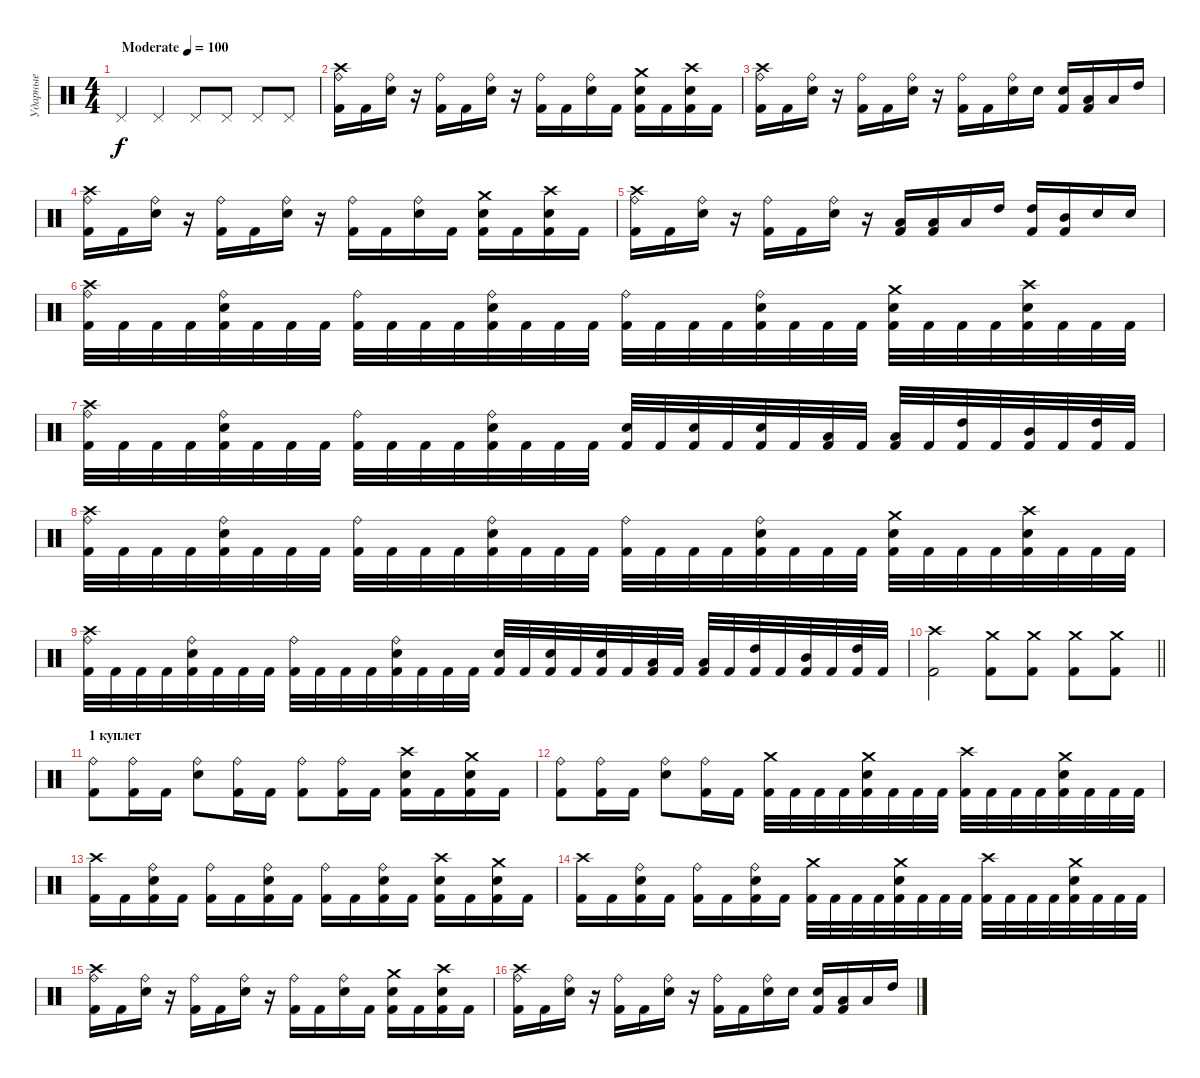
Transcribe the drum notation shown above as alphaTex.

\track ("Ударные" "Ударные") {instrument percussion}
\staff {score}
\articulation defaults
\ts (4 4)
\tempo (100 "Moderate")
\clef neutral
\ks c "Pedal Hi-Hat (hit)".4{dy f} "Pedal Hi-Hat (hit)".4 "Pedal Hi-Hat (hit)".8 "Pedal Hi-Hat (hit)".8 "Pedal Hi-Hat (hit)".8 "Pedal Hi-Hat (hit)".8
|
("Ride (bell)" "Crash high (hit)" "Kick (hit) 2").16 "Kick (hit) 2".16 ("Ride (bell)" "Snare (hit) 2").16 r.16 ("Ride (bell)" "Kick (hit) 2").16 "Kick (hit) 2".16 ("Ride (bell)" "Snare (hit) 2").16 r.16 ("Ride (bell)" "Kick (hit) 2").16 "Kick (hit) 2".16 ("Ride (bell)" "Snare (hit) 2").16 "Kick (hit) 2".16 ("Crash medium (hit)" "Snare (hit) 2" "Kick (hit) 2").16 "Kick (hit) 2".16 ("Crash high (hit)" "Snare (hit) 2" "Kick (hit) 2").16 "Kick (hit) 2".16 |
("Ride (bell)" "Crash high (hit)" "Kick (hit) 2").16 "Kick (hit) 2".16 ("Ride (bell)" "Snare (hit) 2").16 r.16 ("Ride (bell)" "Kick (hit) 2").16 "Kick (hit) 2".16 ("Ride (bell)" "Snare (hit) 2").16 r.16 ("Ride (bell)" "Kick (hit) 2").16 "Kick (hit) 2".16 ("Ride (bell)" "Snare (hit) 2").16 "Snare (hit) 2".16 ("Snare (hit) 2" "Kick (hit) 2").16 ("Low Tom (hit)" "Kick (hit) 2").16 "Low Tom (hit)".16 "High Tom (hit)".16 |
("Ride (bell)" "Crash high (hit)" "Kick (hit) 2").16 "Kick (hit) 2".16 ("Ride (bell)" "Snare (hit) 2").16 r.16 ("Ride (bell)" "Kick (hit) 2").16 "Kick (hit) 2".16 ("Ride (bell)" "Snare (hit) 2").16 r.16 ("Ride (bell)" "Kick (hit) 2").16 "Kick (hit) 2".16 ("Ride (bell)" "Snare (hit) 2").16 "Kick (hit) 2".16 ("Crash medium (hit)" "Snare (hit) 2" "Kick (hit) 2").16 "Kick (hit) 2".16 ("Crash high (hit)" "Snare (hit) 2" "Kick (hit) 2").16 "Kick (hit) 2".16 |
("Ride (bell)" "Crash high (hit)" "Kick (hit) 2").16 "Kick (hit) 2".16 ("Ride (bell)" "Snare (hit) 2").16 r.16 ("Ride (bell)" "Kick (hit) 2").16 "Kick (hit) 2".16 ("Ride (bell)" "Snare (hit) 2").16 r.16 ("Low Tom (hit)" "Kick (hit) 2").16 ("Low Tom (hit)" "Kick (hit) 2").16 "Low Tom (hit)".16 "High Tom (hit)".16 ("High Tom (hit)" "Kick (hit) 2").16 ("Mid Tom (hit)" "Kick (hit) 2").16 "Snare (hit) 2".16 "Snare (hit) 2".16 |
("Ride (bell)" "Crash high (hit)" "Kick (hit) 2").32 "Kick (hit) 2".32 "Kick (hit) 2".32 "Kick (hit) 2".32 ("Ride (bell)" "Snare (hit) 2" "Kick (hit) 2").32 "Kick (hit) 2".32 "Kick (hit) 2".32 "Kick (hit) 2".32 ("Ride (bell)" "Kick (hit) 2").32 "Kick (hit) 2".32 "Kick (hit) 2".32 "Kick (hit) 2".32 ("Ride (bell)" "Snare (hit) 2" "Kick (hit) 2").32 "Kick (hit) 2".32 "Kick (hit) 2".32 "Kick (hit) 2".32 ("Ride (bell)" "Kick (hit) 2").32 "Kick (hit) 2".32 "Kick (hit) 2".32 "Kick (hit) 2".32 ("Ride (bell)" "Snare (hit) 2" "Kick (hit) 2").32 "Kick (hit) 2".32 "Kick (hit) 2".32 "Kick (hit) 2".32 ("Crash medium (hit)" "Snare (hit) 2" "Kick (hit) 2").32 "Kick (hit) 2".32 "Kick (hit) 2".32 "Kick (hit) 2".32 ("Crash high (hit)" "Snare (hit) 2" "Kick (hit) 2").32 "Kick (hit) 2".32 "Kick (hit) 2".32 "Kick (hit) 2".32 |
("Ride (bell)" "Crash high (hit)" "Kick (hit) 2").32 "Kick (hit) 2".32 "Kick (hit) 2".32 "Kick (hit) 2".32 ("Ride (bell)" "Snare (hit) 2" "Kick (hit) 2").32 "Kick (hit) 2".32 "Kick (hit) 2".32 "Kick (hit) 2".32 ("Ride (bell)" "Kick (hit) 2").32 "Kick (hit) 2".32 "Kick (hit) 2".32 "Kick (hit) 2".32 ("Ride (bell)" "Snare (hit) 2" "Kick (hit) 2").32 "Kick (hit) 2".32 "Kick (hit) 2".32 "Kick (hit) 2".32 ("Snare (hit) 2" "Kick (hit) 2").32 "Kick (hit) 2".32 ("Snare (hit) 2" "Kick (hit) 2").32 "Kick (hit) 2".32 ("Snare (hit) 2" "Kick (hit) 2").32 "Kick (hit) 2".32 ("Low Tom (hit)" "Kick (hit) 2").32 "Kick (hit) 2".32 ("Low Tom (hit)" "Kick (hit) 2").32 "Kick (hit) 2".32 ("High Tom (hit)" "Kick (hit) 2").32 "Kick (hit) 2".32 ("Mid Tom (hit)" "Kick (hit) 2").32 "Kick (hit) 2".32 ("High Tom (hit)" "Kick (hit) 2").32 "Kick (hit) 2".32 |
("Ride (bell)" "Crash high (hit)" "Kick (hit) 2").32 "Kick (hit) 2".32 "Kick (hit) 2".32 "Kick (hit) 2".32 ("Ride (bell)" "Snare (hit) 2" "Kick (hit) 2").32 "Kick (hit) 2".32 "Kick (hit) 2".32 "Kick (hit) 2".32 ("Ride (bell)" "Kick (hit) 2").32 "Kick (hit) 2".32 "Kick (hit) 2".32 "Kick (hit) 2".32 ("Ride (bell)" "Snare (hit) 2" "Kick (hit) 2").32 "Kick (hit) 2".32 "Kick (hit) 2".32 "Kick (hit) 2".32 ("Ride (bell)" "Kick (hit) 2").32 "Kick (hit) 2".32 "Kick (hit) 2".32 "Kick (hit) 2".32 ("Ride (bell)" "Snare (hit) 2" "Kick (hit) 2").32 "Kick (hit) 2".32 "Kick (hit) 2".32 "Kick (hit) 2".32 ("Crash medium (hit)" "Snare (hit) 2" "Kick (hit) 2").32 "Kick (hit) 2".32 "Kick (hit) 2".32 "Kick (hit) 2".32 ("Crash high (hit)" "Snare (hit) 2" "Kick (hit) 2").32 "Kick (hit) 2".32 "Kick (hit) 2".32 "Kick (hit) 2".32 |
("Ride (bell)" "Crash high (hit)" "Kick (hit) 2").32 "Kick (hit) 2".32 "Kick (hit) 2".32 "Kick (hit) 2".32 ("Ride (bell)" "Snare (hit) 2" "Kick (hit) 2").32 "Kick (hit) 2".32 "Kick (hit) 2".32 "Kick (hit) 2".32 ("Ride (bell)" "Kick (hit) 2").32 "Kick (hit) 2".32 "Kick (hit) 2".32 "Kick (hit) 2".32 ("Ride (bell)" "Snare (hit) 2" "Kick (hit) 2").32 "Kick (hit) 2".32 "Kick (hit) 2".32 "Kick (hit) 2".32 ("Snare (hit) 2" "Kick (hit) 2").32 "Kick (hit) 2".32 ("Snare (hit) 2" "Kick (hit) 2").32 "Kick (hit) 2".32 ("Snare (hit) 2" "Kick (hit) 2").32 "Kick (hit) 2".32 ("Low Tom (hit)" "Kick (hit) 2").32 "Kick (hit) 2".32 ("Low Tom (hit)" "Kick (hit) 2").32 "Kick (hit) 2".32 ("High Tom (hit)" "Kick (hit) 2").32 "Kick (hit) 2".32 ("Mid Tom (hit)" "Kick (hit) 2").32 "Kick (hit) 2".32 ("High Tom (hit)" "Kick (hit) 2").32 "Kick (hit) 2".32 |
\barLineRight lightlight
("Crash high (hit)" "Kick (hit) 2").2 ("Crash medium (hit)" "Kick (hit) 2").8 ("Crash medium (hit)" "Kick (hit) 2").8 ("Crash medium (hit)" "Kick (hit) 2").8 ("Crash medium (hit)" "Kick (hit) 2").8 |
\section ("" "1 куплет")
("Ride (bell)" "Kick (hit) 2").8 ("Ride (bell)" "Kick (hit) 2").16 "Kick (hit) 2".16 ("Ride (bell)" "Snare (hit) 2").8 ("Ride (bell)" "Kick (hit) 2").16 "Kick (hit) 2".16 ("Ride (bell)" "Kick (hit) 2").8 ("Ride (bell)" "Kick (hit) 2").16 "Kick (hit) 2".16 ("Crash high (hit)" "Snare (hit) 2" "Kick (hit) 2").16 "Kick (hit) 2".16 ("Crash medium (hit)" "Snare (hit) 2" "Kick (hit) 2").16 "Kick (hit) 2".16 |
("Ride (bell)" "Kick (hit) 2").8 ("Ride (bell)" "Kick (hit) 2").16 "Kick (hit) 2".16 ("Ride (bell)" "Snare (hit) 2").8 ("Ride (bell)" "Kick (hit) 2").16 "Kick (hit) 2".16 ("Crash medium (hit)" "Kick (hit) 2").32 "Kick (hit) 2".32 "Kick (hit) 2".32 "Kick (hit) 2".32 ("Snare (hit) 2" "Crash medium (hit)" "Kick (hit) 2").32 "Kick (hit) 2".32 "Kick (hit) 2".32 "Kick (hit) 2".32 ("Crash high (hit)" "Kick (hit) 2").32 "Kick (hit) 2".32 "Kick (hit) 2".32 "Kick (hit) 2".32 ("Snare (hit) 2" "Crash medium (hit)" "Kick (hit) 2").32 "Kick (hit) 2".32 "Kick (hit) 2".32 "Kick (hit) 2".32 |
("Crash high (hit)" "Kick (hit) 2").16 "Kick (hit) 2".16 ("Ride (bell)" "Snare (hit) 2" "Kick (hit) 2").16 "Kick (hit) 2".16 ("Ride (bell)" "Kick (hit) 2").16 "Kick (hit) 2".16 ("Ride (bell)" "Snare (hit) 2" "Kick (hit) 2").16 "Kick (hit) 2".16 ("Ride (bell)" "Kick (hit) 2").16 "Kick (hit) 2".16 ("Ride (bell)" "Snare (hit) 2" "Kick (hit) 2").16 "Kick (hit) 2".16 ("Crash high (hit)" "Snare (hit) 2" "Kick (hit) 2").16 "Kick (hit) 2".16 ("Crash medium (hit)" "Snare (hit) 2" "Kick (hit) 2").16 "Kick (hit) 2".16 |
("Crash high (hit)" "Kick (hit) 2").16 "Kick (hit) 2".16 ("Ride (bell)" "Snare (hit) 2" "Kick (hit) 2").16 "Kick (hit) 2".16 ("Ride (bell)" "Kick (hit) 2").16 "Kick (hit) 2".16 ("Ride (bell)" "Snare (hit) 2" "Kick (hit) 2").16 "Kick (hit) 2".16 ("Crash medium (hit)" "Kick (hit) 2").32 "Kick (hit) 2".32 "Kick (hit) 2".32 "Kick (hit) 2".32 ("Snare (hit) 2" "Crash medium (hit)" "Kick (hit) 2").32 "Kick (hit) 2".32 "Kick (hit) 2".32 "Kick (hit) 2".32 ("Crash high (hit)" "Kick (hit) 2").32 "Kick (hit) 2".32 "Kick (hit) 2".32 "Kick (hit) 2".32 ("Snare (hit) 2" "Crash medium (hit)" "Kick (hit) 2").32 "Kick (hit) 2".32 "Kick (hit) 2".32 "Kick (hit) 2".32 |
("Ride (bell)" "Crash high (hit)" "Kick (hit) 2").16 "Kick (hit) 2".16 ("Ride (bell)" "Snare (hit) 2").16 r.16 ("Ride (bell)" "Kick (hit) 2").16 "Kick (hit) 2".16 ("Ride (bell)" "Snare (hit) 2").16 r.16 ("Ride (bell)" "Kick (hit) 2").16 "Kick (hit) 2".16 ("Ride (bell)" "Snare (hit) 2").16 "Kick (hit) 2".16 ("Crash medium (hit)" "Snare (hit) 2" "Kick (hit) 2").16 "Kick (hit) 2".16 ("Crash high (hit)" "Snare (hit) 2" "Kick (hit) 2").16 "Kick (hit) 2".16 |
("Ride (bell)" "Crash high (hit)" "Kick (hit) 2").16 "Kick (hit) 2".16 ("Ride (bell)" "Snare (hit) 2").16 r.16 ("Ride (bell)" "Kick (hit) 2").16 "Kick (hit) 2".16 ("Ride (bell)" "Snare (hit) 2").16 r.16 ("Ride (bell)" "Kick (hit) 2").16 "Kick (hit) 2".16 ("Ride (bell)" "Snare (hit) 2").16 "Snare (hit) 2".16 ("Snare (hit) 2" "Kick (hit) 2").16 ("Low Tom (hit)" "Kick (hit) 2").16 "Low Tom (hit)".16 "High Tom (hit)".16
